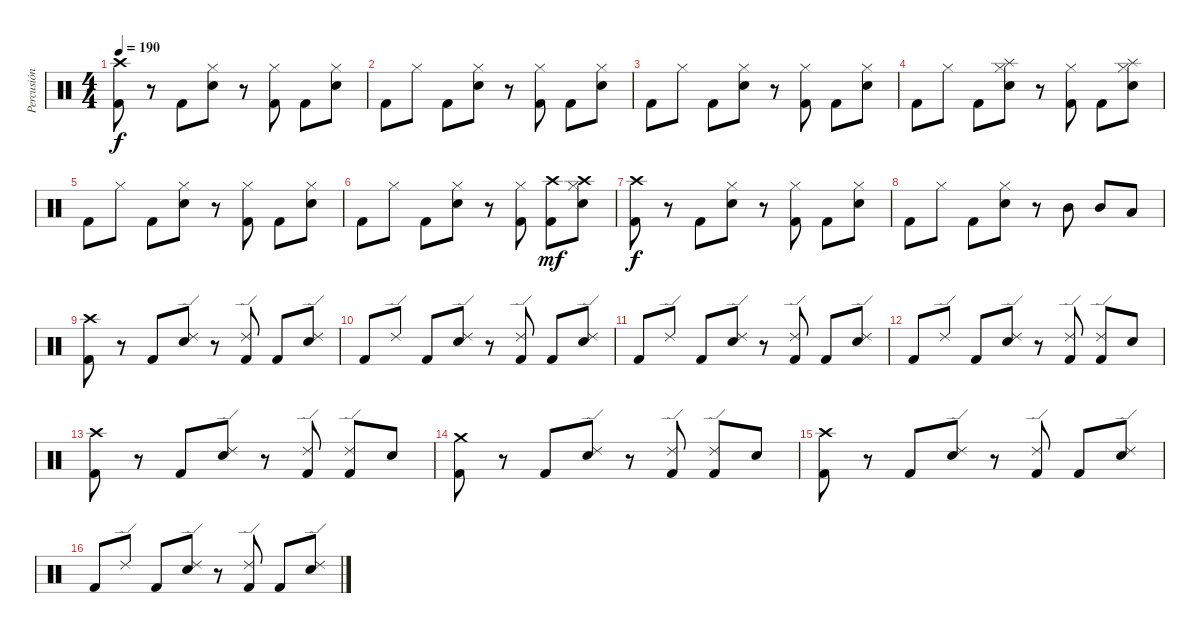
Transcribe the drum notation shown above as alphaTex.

\track ("Percusión" "Percusión") {instrument percussion}
\staff {score}
\articulation defaults
\ts (4 4)
\tempo 190
\clef neutral
\ks c
("Crash high (hit)" "Kick (hit) 2").8{dy f} r.8 "Kick (hit) 2".8 ("Hi-Hat (closed)" "Snare (hit) 2").8 r.8 ("Hi-Hat (closed)" "Kick (hit) 2").8 "Kick (hit) 2".8 ("Hi-Hat (closed)" "Snare (hit) 2").8 |
"Kick (hit) 2".8 "Hi-Hat (closed)".8 "Kick (hit) 2".8 ("Hi-Hat (closed)" "Snare (hit) 2").8 r.8 ("Hi-Hat (closed)" "Kick (hit) 2").8 "Kick (hit) 2".8 ("Hi-Hat (closed)" "Snare (hit) 2").8 |
"Kick (hit) 2".8 "Hi-Hat (closed)".8 "Kick (hit) 2".8 ("Hi-Hat (closed)" "Snare (hit) 2").8 r.8 ("Hi-Hat (closed)" "Kick (hit) 2").8 "Kick (hit) 2".8 ("Hi-Hat (closed)" "Snare (hit) 2").8 |
"Kick (hit) 2".8 "Hi-Hat (closed)".8 "Kick (hit) 2".8 ("Hi-Hat (closed)" "Splash (hit)" "Snare (hit) 2").8 r.8 ("Hi-Hat (closed)" "Kick (hit) 2").8 "Kick (hit) 2".8 ("Hi-Hat (closed)" "Splash (hit)" "Snare (hit) 2").8 |
"Kick (hit) 2".8 "Hi-Hat (closed)".8 "Kick (hit) 2".8 ("Hi-Hat (closed)" "Snare (hit) 2").8 r.8 ("Hi-Hat (closed)" "Kick (hit) 2").8 "Kick (hit) 2".8 ("Hi-Hat (closed)" "Snare (hit) 2").8 |
"Kick (hit) 2".8 "Hi-Hat (closed)".8 "Kick (hit) 2".8 ("Hi-Hat (closed)" "Snare (hit) 2").8 r.8 ("Hi-Hat (closed)" "Kick (hit) 2").8 ("Crash high (hit)" "Kick (hit) 2").8{dy mf} ("Hi-Hat (closed)" "Crash high (hit)" "Snare (hit) 2").8 |
("Crash high (hit)" "Kick (hit) 2").8{dy f} r.8 "Kick (hit) 2".8 ("Hi-Hat (closed)" "Snare (hit) 2").8 r.8 ("Hi-Hat (closed)" "Kick (hit) 2").8 "Kick (hit) 2".8 ("Hi-Hat (closed)" "Snare (hit) 2").8 |
"Kick (hit) 2".8 "Hi-Hat (closed)".8 "Kick (hit) 2".8 ("Hi-Hat (closed)" "Snare (hit) 2").8 r.8 "Mid Tom (hit)".8 "Mid Tom (hit)".8 "Low Tom (hit)".8 |
("Crash high (hit)" "Kick (hit) 2").8{volume 11} r.8 "Kick (hit) 2".8 ("Ride (edge) 2" "Snare (hit) 2").8 r.8 ("Ride (edge) 2" "Kick (hit) 2").8 "Kick (hit) 2".8 ("Ride (edge) 2" "Snare (hit) 2").8 |
"Kick (hit) 2".8 "Ride (edge) 2".8 "Kick (hit) 2".8 ("Ride (edge) 2" "Snare (hit) 2").8 r.8 ("Ride (edge) 2" "Kick (hit) 2").8 "Kick (hit) 2".8 ("Ride (edge) 2" "Snare (hit) 2").8 |
"Kick (hit) 2".8 "Ride (edge) 2".8 "Kick (hit) 2".8 ("Ride (edge) 2" "Snare (hit) 2").8 r.8 ("Ride (edge) 2" "Kick (hit) 2").8 "Kick (hit) 2".8 ("Ride (edge) 2" "Snare (hit) 2").8 |
"Kick (hit) 2".8 "Ride (edge) 2".8 "Kick (hit) 2".8 ("Ride (edge) 2" "Snare (hit) 2").8 r.8 ("Ride (edge) 2" "Kick (hit) 2").8 ("Ride (edge) 2" "Kick (hit) 2").8 "Snare (hit) 2".8 |
("Crash high (hit)" "Kick (hit) 2").8 r.8 "Kick (hit) 2".8 ("Ride (edge) 2" "Snare (hit) 2").8 r.8 ("Ride (edge) 2" "Kick (hit) 2").8 ("Ride (edge) 2" "Kick (hit) 2").8 "Snare (hit) 2".8 |
("Crash medium (hit)" "Kick (hit) 2").8 r.8 "Kick (hit) 2".8 ("Ride (edge) 2" "Snare (hit) 2").8 r.8 ("Ride (edge) 2" "Kick (hit) 2").8 ("Ride (edge) 2" "Kick (hit) 2").8 "Snare (hit) 2".8 |
("Crash high (hit)" "Kick (hit) 2").8 r.8 "Kick (hit) 2".8 ("Ride (edge) 2" "Snare (hit) 2").8 r.8 ("Ride (edge) 2" "Kick (hit) 2").8 "Kick (hit) 2".8 ("Ride (edge) 2" "Snare (hit) 2").8 |
"Kick (hit) 2".8 "Ride (edge) 2".8 "Kick (hit) 2".8 ("Ride (edge) 2" "Snare (hit) 2").8 r.8 ("Ride (edge) 2" "Kick (hit) 2").8 "Kick (hit) 2".8 ("Ride (edge) 2" "Snare (hit) 2").8
